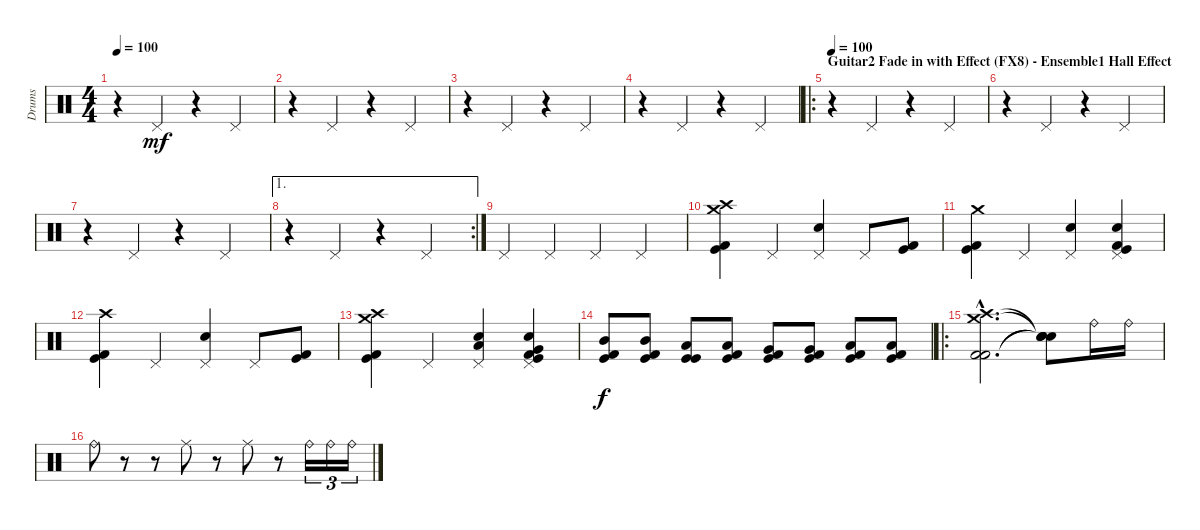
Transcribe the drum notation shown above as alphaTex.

\track ("Drums" "Drums") {instrument percussion}
\staff {score}
\articulation defaults
\ts (4 4)
\tempo 100
\clef neutral
\ks c
r.4{dy mf} "Pedal Hi-Hat (hit)".4 r.4 "Pedal Hi-Hat (hit)".4 |
r.4 "Pedal Hi-Hat (hit)".4 r.4 "Pedal Hi-Hat (hit)".4 |
r.4 "Pedal Hi-Hat (hit)".4 r.4 "Pedal Hi-Hat (hit)".4 |
r.4 "Pedal Hi-Hat (hit)".4 r.4 "Pedal Hi-Hat (hit)".4 |
\ro
\section ("" "Guitar2 Fade in with Effect (FX8) - Ensemble1 Hall Effect")
\tempo 100
r.4 "Pedal Hi-Hat (hit)".4 r.4 "Pedal Hi-Hat (hit)".4 |
r.4 "Pedal Hi-Hat (hit)".4 r.4 "Pedal Hi-Hat (hit)".4 |
r.4 "Pedal Hi-Hat (hit)".4 r.4 "Pedal Hi-Hat (hit)".4 |
\ae 1
\rc 2
r.4 "Pedal Hi-Hat (hit)".4 r.4 "Pedal Hi-Hat (hit)".4 |
"Pedal Hi-Hat (hit)".4 "Pedal Hi-Hat (hit)".4 "Pedal Hi-Hat (hit)".4 "Pedal Hi-Hat (hit)".4 |
("Crash high (hit)" "Crash medium (hit)" "Kick (hit)" "Kick (hit) 2").4 "Pedal Hi-Hat (hit)".4 ("Pedal Hi-Hat (hit)" "Snare (hit) 2").4 "Pedal Hi-Hat (hit)".8 ("Kick (hit)" "Kick (hit) 2").8 |
("Crash medium (hit)" "Kick (hit)" "Kick (hit) 2").4 "Pedal Hi-Hat (hit)".4 ("Pedal Hi-Hat (hit)" "Snare (hit) 2").4 ("Pedal Hi-Hat (hit)" "Snare (hit) 2" "Kick (hit)" "Kick (hit) 2").4 |
("Crash high (hit)" "Kick (hit)" "Kick (hit) 2").4 "Pedal Hi-Hat (hit)".4 ("Pedal Hi-Hat (hit)" "Snare (hit) 2").4 "Pedal Hi-Hat (hit)".8 ("Kick (hit)" "Kick (hit) 2").8 |
("Crash high (hit)" "Crash medium (hit)" "Kick (hit)" "Kick (hit) 2").4 "Pedal Hi-Hat (hit)".4 ("Pedal Hi-Hat (hit)" "Snare (hit) 2" "Low Tom (hit)").4 ("Pedal Hi-Hat (hit)" "Snare (hit) 2" "Very Low Tom (hit)" "Kick (hit)" "Kick (hit) 2").4 |
("Mid Tom (hit)" "Kick (hit)" "Kick (hit) 2").8{dy f} ("Mid Tom (hit)" "Kick (hit)" "Kick (hit) 2").8 ("Low Tom (hit)" "Kick (hit)" "Kick (hit)").8 ("Low Tom (hit)" "Kick (hit)" "Kick (hit) 2").8 ("Very Low Tom (hit)" "Kick (hit)" "Kick (hit) 2").8 ("Very Low Tom (hit)" "Kick (hit)" "Kick (hit) 2").8 ("Low Floor Tom (hit)" "Kick (hit)" "Kick (hit) 2").8 ("Low Floor Tom (hit)" "Kick (hit)" "Kick (hit) 2").8 |
\ro
("Crash high (hit)"{hac} "Crash medium (hit)"{hac} "Kick (hit) 2"{hac} "Kick (hit) 2"{hac}).2{d} ("Snare (hit)"{t} "Snare (hit)"{t} "Snare (hit)"{t} "Snare (hit)"{t}).8 "Ride (bell)".16 "Ride (bell)".16 |
"Ride (bell)".8 r.8 r.8 "Ride (middle)".8 r.8 "Ride (middle)".8 r.8 "Ride (bell)".16{tu (3 2)} "Ride (bell)".16{tu (3 2)} "Ride (bell)".16{tu (3 2)}
